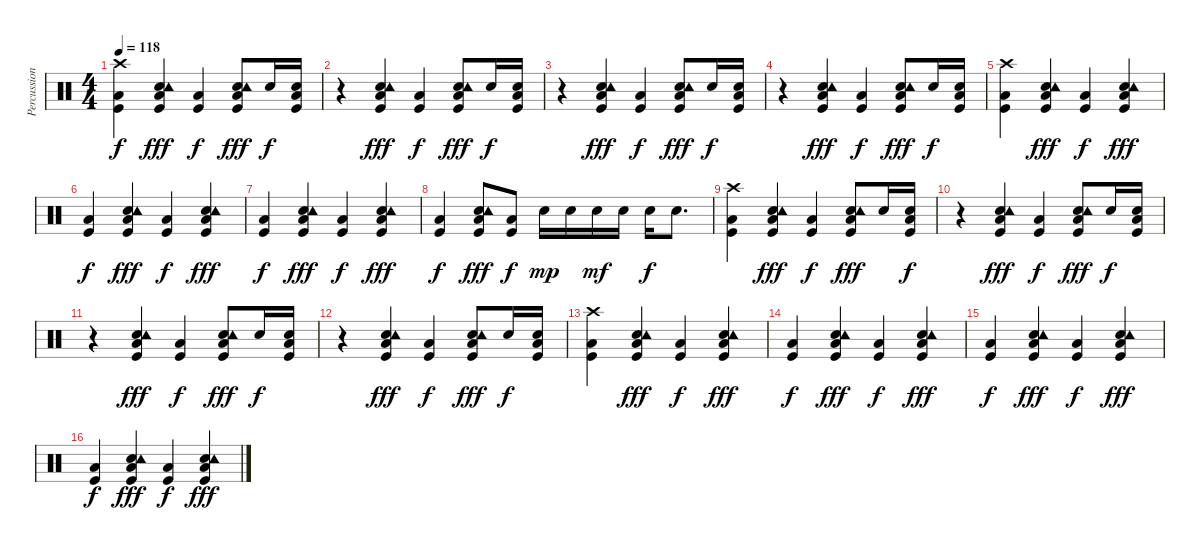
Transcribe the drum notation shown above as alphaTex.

\track ("Percussion" "Percussion") {instrument percussion}
\staff {score}
\articulation defaults
\ts (4 4)
\tempo 118
\clef neutral
\ks c
("Crash high (hit)" "Kick (hit)" "Low Floor Tom (hit)").4{dy f} ("Snare (hit) 2" "Tambourine (hit)" "Kick (hit)" "Low Floor Tom (hit)").4{dy fff} ("Kick (hit)" "Low Floor Tom (hit)").4{dy f} ("Snare (hit) 2" "Tambourine (hit)" "Kick (hit)" "Low Floor Tom (hit)").8{dy fff} "Snare (hit) 2".16{dy f} ("Snare (hit) 2" "Kick (hit)" "Low Floor Tom (hit)").16 |
r.4 ("Snare (hit) 2" "Tambourine (hit)" "Kick (hit)" "Low Floor Tom (hit)").4{dy fff} ("Kick (hit)" "Low Floor Tom (hit)").4{dy f} ("Snare (hit) 2" "Tambourine (hit)" "Kick (hit)" "Low Floor Tom (hit)").8{dy fff} "Snare (hit) 2".16{dy f} ("Snare (hit) 2" "Kick (hit)" "Low Floor Tom (hit)").16 |
r.4 ("Snare (hit) 2" "Tambourine (hit)" "Kick (hit)" "Low Floor Tom (hit)").4{dy fff} ("Kick (hit)" "Low Floor Tom (hit)").4{dy f} ("Snare (hit) 2" "Tambourine (hit)" "Kick (hit)" "Low Floor Tom (hit)").8{dy fff} "Snare (hit) 2".16{dy f} ("Snare (hit) 2" "Kick (hit)" "Low Floor Tom (hit)").16 |
r.4 ("Snare (hit) 2" "Tambourine (hit)" "Kick (hit)" "Low Floor Tom (hit)").4{dy fff} ("Kick (hit)" "Low Floor Tom (hit)").4{dy f} ("Snare (hit) 2" "Tambourine (hit)" "Kick (hit)" "Low Floor Tom (hit)").8{dy fff} "Snare (hit) 2".16{dy f} ("Snare (hit) 2" "Kick (hit)" "Low Floor Tom (hit)").16 |
("Crash high (hit)" "Kick (hit)" "Low Floor Tom (hit)").4 ("Snare (hit) 2" "Tambourine (hit)" "Kick (hit)" "Low Floor Tom (hit)").4{dy fff} ("Kick (hit)" "Low Floor Tom (hit)").4{dy f} ("Snare (hit) 2" "Tambourine (hit)" "Kick (hit)" "Low Floor Tom (hit)").4{dy fff} |
("Kick (hit)" "Low Floor Tom (hit)").4{dy f} ("Snare (hit) 2" "Tambourine (hit)" "Kick (hit)" "Low Floor Tom (hit)").4{dy fff} ("Kick (hit)" "Low Floor Tom (hit)").4{dy f} ("Snare (hit) 2" "Tambourine (hit)" "Kick (hit)" "Low Floor Tom (hit)").4{dy fff} |
("Kick (hit)" "Low Floor Tom (hit)").4{dy f} ("Snare (hit) 2" "Tambourine (hit)" "Kick (hit)" "Low Floor Tom (hit)").4{dy fff} ("Kick (hit)" "Low Floor Tom (hit)").4{dy f} ("Snare (hit) 2" "Tambourine (hit)" "Kick (hit)" "Low Floor Tom (hit)").4{dy fff} |
("Kick (hit)" "Low Floor Tom (hit)").4{dy f} ("Snare (hit) 2" "Tambourine (hit)" "Kick (hit)" "Low Floor Tom (hit)").8{dy fff} ("Kick (hit)" "Low Floor Tom (hit)").8{dy f} "Snare (hit) 2".16{dy mp} "Snare (hit) 2".16 "Snare (hit) 2".16{dy mf} "Snare (hit) 2".16 "Snare (hit) 2".16{dy f} "Snare (hit) 2".8{d} |
("Crash high (hit)" "Kick (hit)" "Low Floor Tom (hit)").4 ("Snare (hit) 2" "Tambourine (hit)" "Kick (hit)" "Low Floor Tom (hit)").4{dy fff} ("Kick (hit)" "Low Floor Tom (hit)").4{dy f} ("Snare (hit) 2" "Tambourine (hit)" "Kick (hit)" "Low Floor Tom (hit)").8{dy fff} "Snare (hit) 2".16 ("Snare (hit) 2" "Kick (hit)" "Low Floor Tom (hit)").16{dy f} |
r.4 ("Snare (hit) 2" "Tambourine (hit)" "Kick (hit)" "Low Floor Tom (hit)").4{dy fff} ("Kick (hit)" "Low Floor Tom (hit)").4{dy f} ("Snare (hit) 2" "Tambourine (hit)" "Kick (hit)" "Low Floor Tom (hit)").8{dy fff} "Snare (hit) 2".16{dy f} ("Snare (hit) 2" "Kick (hit)" "Low Floor Tom (hit)").16 |
r.4 ("Snare (hit) 2" "Tambourine (hit)" "Kick (hit)" "Low Floor Tom (hit)").4{dy fff} ("Kick (hit)" "Low Floor Tom (hit)").4{dy f} ("Snare (hit) 2" "Tambourine (hit)" "Kick (hit)" "Low Floor Tom (hit)").8{dy fff} "Snare (hit) 2".16{dy f} ("Snare (hit) 2" "Kick (hit)" "Low Floor Tom (hit)").16 |
r.4 ("Snare (hit) 2" "Tambourine (hit)" "Kick (hit)" "Low Floor Tom (hit)").4{dy fff} ("Kick (hit)" "Low Floor Tom (hit)").4{dy f} ("Snare (hit) 2" "Tambourine (hit)" "Kick (hit)" "Low Floor Tom (hit)").8{dy fff} "Snare (hit) 2".16{dy f} ("Snare (hit) 2" "Kick (hit)" "Low Floor Tom (hit)").16 |
("Crash high (hit)" "Kick (hit)" "Low Floor Tom (hit)").4 ("Snare (hit) 2" "Tambourine (hit)" "Kick (hit)" "Low Floor Tom (hit)").4{dy fff} ("Kick (hit)" "Low Floor Tom (hit)").4{dy f} ("Snare (hit) 2" "Tambourine (hit)" "Kick (hit)" "Low Floor Tom (hit)").4{dy fff} |
("Kick (hit)" "Low Floor Tom (hit)").4{dy f} ("Snare (hit) 2" "Tambourine (hit)" "Kick (hit)" "Low Floor Tom (hit)").4{dy fff} ("Kick (hit)" "Low Floor Tom (hit)").4{dy f} ("Snare (hit) 2" "Tambourine (hit)" "Kick (hit)" "Low Floor Tom (hit)").4{dy fff} |
("Kick (hit)" "Low Floor Tom (hit)").4{dy f} ("Snare (hit) 2" "Tambourine (hit)" "Kick (hit)" "Low Floor Tom (hit)").4{dy fff} ("Kick (hit)" "Low Floor Tom (hit)").4{dy f} ("Snare (hit) 2" "Tambourine (hit)" "Kick (hit)" "Low Floor Tom (hit)").4{dy fff} |
("Kick (hit)" "Low Floor Tom (hit)").4{dy f} ("Snare (hit) 2" "Tambourine (hit)" "Kick (hit)" "Low Floor Tom (hit)").4{dy fff} ("Kick (hit)" "Low Floor Tom (hit)").4{dy f} ("Snare (hit) 2" "Tambourine (hit)" "Kick (hit)" "Low Floor Tom (hit)").4{dy fff}
